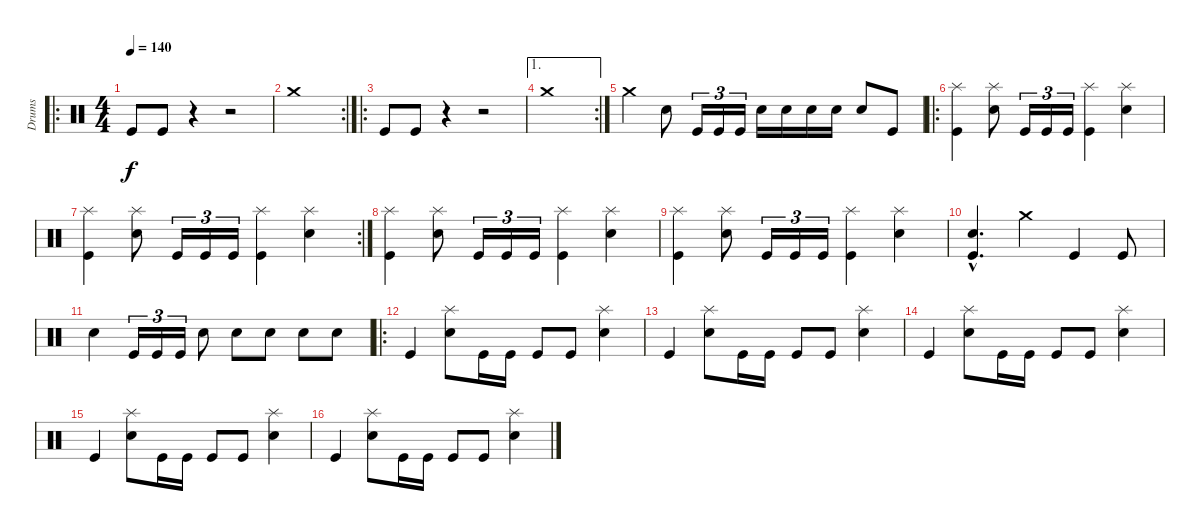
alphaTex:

\track ("Drums" "Drums") {instrument percussion}
\staff {score}
\articulation defaults
\ro
\ts (4 4)
\tempo 140
\clef neutral
\ks c "Kick (hit)".8{dy f} "Kick (hit)".8
r.4 r.2 |
\rc 2 "Crash medium (hit)".1
|
\ro "Kick (hit)".8 "Kick (hit)".8
r.4 r.2 |
\ae 1
\rc 2 "Crash medium (hit)".1
|
"Crash medium (hit)".4 "Electric Snare (hit)".8 "Kick (hit)".16{tu (3 2)} "Kick (hit)".16{tu (3 2)} "Kick (hit)".16{tu (3 2)} "Snare (hit) 2".16 "Snare (hit) 2".16 "Snare (hit) 2".16 "Electric Snare (hit)".16 "Electric Snare (hit)".8 "Kick (hit)".8 |
\ro
("Splash (hit)" "Kick (hit)").4 ("Electric Snare (hit)" "Splash (hit)").8 "Kick (hit)".16{tu (3 2)} "Kick (hit)".16{tu (3 2)} "Kick (hit)".16{tu (3 2)} ("Splash (hit)" "Kick (hit)").4 ("Splash (hit)" "Electric Snare (hit)").4 |
\rc 2
("Splash (hit)" "Kick (hit)").4 ("Electric Snare (hit)" "Splash (hit)").8 "Kick (hit)".16{tu (3 2)} "Kick (hit)".16{tu (3 2)} "Kick (hit)".16{tu (3 2)} ("Splash (hit)" "Kick (hit)").4 ("Splash (hit)" "Electric Snare (hit)").4 |
("Splash (hit)" "Kick (hit)").4 ("Electric Snare (hit)" "Splash (hit)").8 "Kick (hit)".16{tu (3 2)} "Kick (hit)".16{tu (3 2)} "Kick (hit)".16{tu (3 2)} ("Splash (hit)" "Kick (hit)").4 ("Splash (hit)" "Electric Snare (hit)").4 |
("Splash (hit)" "Kick (hit)").4 ("Electric Snare (hit)" "Splash (hit)").8 "Kick (hit)".16{tu (3 2)} "Kick (hit)".16{tu (3 2)} "Kick (hit)".16{tu (3 2)} ("Splash (hit)" "Kick (hit)").4 ("Splash (hit)" "Electric Snare (hit)").4 |
("Electric Snare (hit)"{hac} "Kick (hit)"{hac}).4{d} "Crash medium (hit)".4 "Kick (hit)".4 "Kick (hit)".8 |
"Electric Snare (hit)".4 "Kick (hit)".16{tu (3 2)} "Kick (hit)".16{tu (3 2)} "Kick (hit)".16{tu (3 2)} "Snare (hit) 2".8 "Snare (hit) 2".8 "Electric Snare (hit)".8 "Electric Snare (hit)".8 "Electric Snare (hit)".8 |
\ro "Kick (hit)".4
("Splash (hit)" "Electric Snare (hit)").8 "Kick (hit)".16 "Kick (hit)".16 "Kick (hit)".8 "Kick (hit)".8 ("Splash (hit)" "Metronome (bell)").4 |
"Kick (hit)".4 ("Splash (hit)" "Electric Snare (hit)").8 "Kick (hit)".16 "Kick (hit)".16 "Kick (hit)".8 "Kick (hit)".8 ("Splash (hit)" "Metronome (bell)").4 |
"Kick (hit)".4 ("Splash (hit)" "Electric Snare (hit)").8 "Kick (hit)".16 "Kick (hit)".16 "Kick (hit)".8 "Kick (hit)".8 ("Splash (hit)" "Metronome (bell)").4 |
"Kick (hit)".4 ("Splash (hit)" "Electric Snare (hit)").8 "Kick (hit)".16 "Kick (hit)".16 "Kick (hit)".8 "Kick (hit)".8 ("Splash (hit)" "Metronome (bell)").4 |
"Kick (hit)".4 ("Splash (hit)" "Electric Snare (hit)").8 "Kick (hit)".16 "Kick (hit)".16 "Kick (hit)".8 "Kick (hit)".8 ("Splash (hit)" "Metronome (bell)").4
